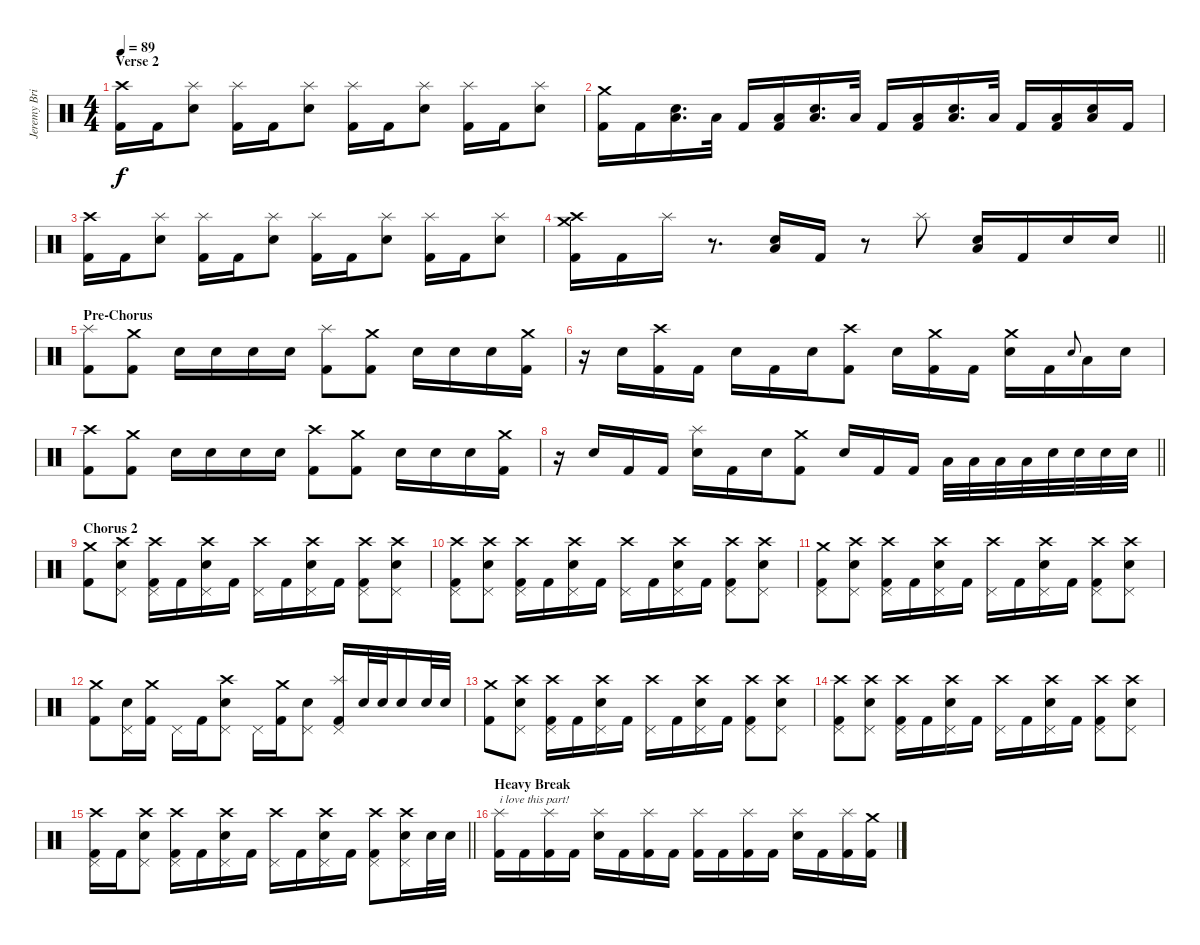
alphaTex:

\track ("Jeremy Brian [Drums]" "Jeremy Bri") {instrument percussion}
\staff {score}
\articulation defaults
\ts (4 4)
\section ("" "Verse 2")
\tempo 89
\clef neutral
\ks c
("Crash high (hit)" "Kick (hit) 2").16{dy f volume 16 balance 8} "Kick (hit) 2".16 ("Splash (hit)" "Electric Snare (hit)").8 ("Splash (hit)" "Kick (hit) 2").16 "Kick (hit) 2".16 ("Splash (hit)" "Electric Snare (hit)").8 ("Splash (hit)" "Kick (hit) 2").16 "Kick (hit) 2".16 ("Splash (hit)" "Electric Snare (hit)").8 ("Splash (hit)" "Kick (hit) 2").16 "Kick (hit) 2".16 ("Splash (hit)" "Electric Snare (hit)").8 |
("Crash medium (hit)" "Kick (hit) 2").16 "Kick (hit) 2".16 ("Low Floor Tom (hit)" "Electric Snare (hit)").16{d} "Low Tom (hit)".32 "Kick (hit) 2".16 ("Low Floor Tom (hit)" "Kick (hit) 2").16 ("Low Floor Tom (hit)" "Electric Snare (hit)").16{d} "Low Tom (hit)".32 "Kick (hit) 2".16 ("Low Floor Tom (hit)" "Kick (hit) 2").16 ("Low Floor Tom (hit)" "Electric Snare (hit)").16{d} "Low Tom (hit)".32 "Kick (hit) 2".16 ("Low Floor Tom (hit)" "Kick (hit) 2").16 ("Low Floor Tom (hit)" "Electric Snare (hit)").16 "Kick (hit) 2".16 |
("Crash high (hit)" "Kick (hit) 2").16 "Kick (hit) 2".16 ("Splash (hit)" "Electric Snare (hit)").8 ("Splash (hit)" "Kick (hit) 2").16 "Kick (hit) 2".16 ("Splash (hit)" "Electric Snare (hit)").8 ("Splash (hit)" "Kick (hit) 2").16 "Kick (hit) 2".16 ("Splash (hit)" "Electric Snare (hit)").8 ("Splash (hit)" "Kick (hit) 2").16 "Kick (hit) 2".16 ("Splash (hit)" "Electric Snare (hit)").8 |
\barLineRight lightlight
("Crash high (hit)" "Crash medium (hit)" "Kick (hit) 2").16 "Kick (hit) 2".16 "Splash (hit)".16 r.8{d} ("Low Floor Tom (hit)" "Electric Snare (hit)").16 "Kick (hit) 2".16 r.8 "Splash (hit)".8 ("Low Floor Tom (hit)" "Electric Snare (hit)").16 "Kick (hit) 2".16 "Electric Snare (hit)".16 "Electric Snare (hit)".16 |
\section ("" "Pre-Chorus")
("Splash (hit)" "Kick (hit) 2").8 ("Crash medium (hit)" "Kick (hit) 2").8 "Electric Snare (hit)".16 "Electric Snare (hit)".16 "Electric Snare (hit)".16 "Electric Snare (hit)".16 ("Splash (hit)" "Kick (hit) 2").8 ("Crash medium (hit)" "Kick (hit) 2").8 "Electric Snare (hit)".16 "Electric Snare (hit)".16 "Electric Snare (hit)".16 ("Crash medium (hit)" "Kick (hit) 2").16 |
r.16 "Electric Snare (hit)".16 ("Crash high (hit)" "Kick (hit) 2").16 "Kick (hit) 2".16 "Electric Snare (hit)".16 "Kick (hit) 2".16 "Electric Snare (hit)".16 ("Crash high (hit)" "Kick (hit) 2").8 "Electric Snare (hit)".16 ("Crash medium (hit)" "Kick (hit) 2").16 "Kick (hit) 2".16 ("Crash medium (hit)" "Electric Snare (hit)").16 "Kick (hit) 2".16 "Electric Snare (hit)".8{gr onbeat} "Low Floor Tom (hit)".16 "Electric Snare (hit)".16 |
("Crash high (hit)" "Kick (hit) 2").8 ("Crash medium (hit)" "Kick (hit) 2").8 "Electric Snare (hit)".16 "Electric Snare (hit)".16 "Electric Snare (hit)".16 "Electric Snare (hit)".16 ("Crash high (hit)" "Kick (hit) 2").8 ("Crash medium (hit)" "Kick (hit) 2").8 "Electric Snare (hit)".16 "Electric Snare (hit)".16 "Electric Snare (hit)".16 ("Crash medium (hit)" "Kick (hit) 2").16 |
\barLineRight lightlight
r.16 "Electric Snare (hit)".16 "Kick (hit) 2".16 "Kick (hit) 2".16 ("Splash (hit)" "Electric Snare (hit)").16 "Kick (hit) 2".16 "Electric Snare (hit)".16 ("Crash medium (hit)" "Kick (hit) 2").8 "Electric Snare (hit)".16 "Kick (hit) 2".16 "Kick (hit) 2".16 "Low Tom (hit)".32 "Low Tom (hit)".32 "Low Tom (hit)".32 "Low Tom (hit)".32 "Electric Snare (hit)".32 "Electric Snare (hit)".32 "Electric Snare (hit)".32 "Electric Snare (hit)".32 |
\section ("" "Chorus 2")
("Crash medium (hit)" "Kick (hit) 2").8 ("Crash high (hit)" "Pedal Hi-Hat (hit)" "Electric Snare (hit)").8 ("Crash high (hit)" "Pedal Hi-Hat (hit)" "Kick (hit) 2").16 "Kick (hit) 2".16 ("Crash high (hit)" "Pedal Hi-Hat (hit)" "Electric Snare (hit)").16 "Kick (hit) 2".16 ("Crash high (hit)" "Pedal Hi-Hat (hit)").16 "Kick (hit) 2".16 ("Crash high (hit)" "Pedal Hi-Hat (hit)" "Electric Snare (hit)").16 "Kick (hit) 2".16 ("Crash high (hit)" "Pedal Hi-Hat (hit)" "Kick (hit) 2").8 ("Crash high (hit)" "Pedal Hi-Hat (hit)" "Electric Snare (hit)").8 |
("Crash high (hit)" "Pedal Hi-Hat (hit)" "Kick (hit) 2").8 ("Crash high (hit)" "Pedal Hi-Hat (hit)" "Electric Snare (hit)").8 ("Crash high (hit)" "Pedal Hi-Hat (hit)" "Kick (hit) 2").16 "Kick (hit) 2".16 ("Crash high (hit)" "Pedal Hi-Hat (hit)" "Electric Snare (hit)").16 "Kick (hit) 2".16 ("Crash high (hit)" "Pedal Hi-Hat (hit)").16 "Kick (hit) 2".16 ("Crash high (hit)" "Pedal Hi-Hat (hit)" "Electric Snare (hit)").16 "Kick (hit) 2".16 ("Crash high (hit)" "Pedal Hi-Hat (hit)" "Kick (hit) 2").8 ("Crash high (hit)" "Pedal Hi-Hat (hit)" "Electric Snare (hit)").8 |
("Crash medium (hit)" "Pedal Hi-Hat (hit)" "Kick (hit) 2").8 ("Crash high (hit)" "Pedal Hi-Hat (hit)" "Electric Snare (hit)").8 ("Crash high (hit)" "Pedal Hi-Hat (hit)" "Kick (hit) 2").16 "Kick (hit) 2".16 ("Crash high (hit)" "Pedal Hi-Hat (hit)" "Electric Snare (hit)").16 "Kick (hit) 2".16 ("Crash high (hit)" "Pedal Hi-Hat (hit)").16 "Kick (hit) 2".16 ("Crash high (hit)" "Pedal Hi-Hat (hit)" "Electric Snare (hit)").16 "Kick (hit) 2".16 ("Crash high (hit)" "Pedal Hi-Hat (hit)" "Kick (hit) 2").8 ("Crash high (hit)" "Pedal Hi-Hat (hit)" "Electric Snare (hit)").8 |
("Crash medium (hit)" "Kick (hit) 2").8 ("Pedal Hi-Hat (hit)" "Electric Snare (hit)").16 ("Crash medium (hit)" "Kick (hit) 2").16 "Pedal Hi-Hat (hit)".16 "Kick (hit) 2".16 ("Crash high (hit)" "Pedal Hi-Hat (hit)" "Electric Snare (hit)").8 "Pedal Hi-Hat (hit)".16 ("Crash medium (hit)" "Kick (hit) 2").16 ("Pedal Hi-Hat (hit)" "Electric Snare (hit)").8 ("Splash (hit)" "Pedal Hi-Hat (hit)" "Kick (hit) 2").16 "Electric Snare (hit)".32 "Electric Snare (hit)".32 "Electric Snare (hit)".16 "Electric Snare (hit)".32 "Electric Snare (hit)".32 |
("Crash medium (hit)" "Kick (hit) 2").8 ("Crash high (hit)" "Pedal Hi-Hat (hit)" "Electric Snare (hit)").8 ("Crash high (hit)" "Pedal Hi-Hat (hit)" "Kick (hit) 2").16 "Kick (hit) 2".16 ("Crash high (hit)" "Pedal Hi-Hat (hit)" "Electric Snare (hit)").16 "Kick (hit) 2".16 ("Crash high (hit)" "Pedal Hi-Hat (hit)").16 "Kick (hit) 2".16 ("Crash high (hit)" "Pedal Hi-Hat (hit)" "Electric Snare (hit)").16 "Kick (hit) 2".16 ("Crash high (hit)" "Pedal Hi-Hat (hit)" "Kick (hit) 2").8 ("Crash high (hit)" "Pedal Hi-Hat (hit)" "Electric Snare (hit)").8 |
("Crash high (hit)" "Pedal Hi-Hat (hit)" "Kick (hit) 2").8 ("Crash high (hit)" "Pedal Hi-Hat (hit)" "Electric Snare (hit)").8 ("Crash high (hit)" "Pedal Hi-Hat (hit)" "Kick (hit) 2").16 "Kick (hit) 2".16 ("Crash high (hit)" "Pedal Hi-Hat (hit)" "Electric Snare (hit)").16 "Kick (hit) 2".16 ("Crash high (hit)" "Pedal Hi-Hat (hit)").16 "Kick (hit) 2".16 ("Crash high (hit)" "Pedal Hi-Hat (hit)" "Electric Snare (hit)").16 "Kick (hit) 2".16 ("Crash high (hit)" "Pedal Hi-Hat (hit)" "Kick (hit) 2").8 ("Crash high (hit)" "Pedal Hi-Hat (hit)" "Electric Snare (hit)").8 |
\barLineRight lightlight
("Crash high (hit)" "Pedal Hi-Hat (hit)" "Kick (hit) 2").16 "Kick (hit) 2".16 ("Crash high (hit)" "Pedal Hi-Hat (hit)" "Electric Snare (hit)").8 ("Crash high (hit)" "Pedal Hi-Hat (hit)" "Kick (hit) 2").16 "Kick (hit) 2".16 ("Crash high (hit)" "Pedal Hi-Hat (hit)" "Electric Snare (hit)").16 "Kick (hit) 2".16 ("Crash high (hit)" "Pedal Hi-Hat (hit)").16 "Kick (hit) 2".16 ("Crash high (hit)" "Pedal Hi-Hat (hit)" "Electric Snare (hit)").16 "Kick (hit) 2".16 ("Crash high (hit)" "Pedal Hi-Hat (hit)" "Kick (hit) 2").8 ("Crash high (hit)" "Pedal Hi-Hat (hit)" "Electric Snare (hit)").16 "Electric Snare (hit)".32 "Electric Snare (hit)".32 |
\section ("" "Heavy Break")
("Splash (hit)" "Kick (hit) 2").16{txt "i love this part!"} "Kick (hit) 2".16 ("Splash (hit)" "Kick (hit) 2").16 "Kick (hit) 2".16 ("Splash (hit)" "Electric Snare (hit)").16 "Kick (hit) 2".16 ("Splash (hit)" "Kick (hit) 2").16 "Kick (hit) 2".16 ("Splash (hit)" "Kick (hit) 2").16 "Kick (hit) 2".16 ("Splash (hit)" "Kick (hit) 2").16 "Kick (hit) 2".16 ("Splash (hit)" "Electric Snare (hit)").16 "Kick (hit) 2".16 ("Splash (hit)" "Kick (hit) 2").16 ("Crash medium (hit)" "Kick (hit) 2").16
